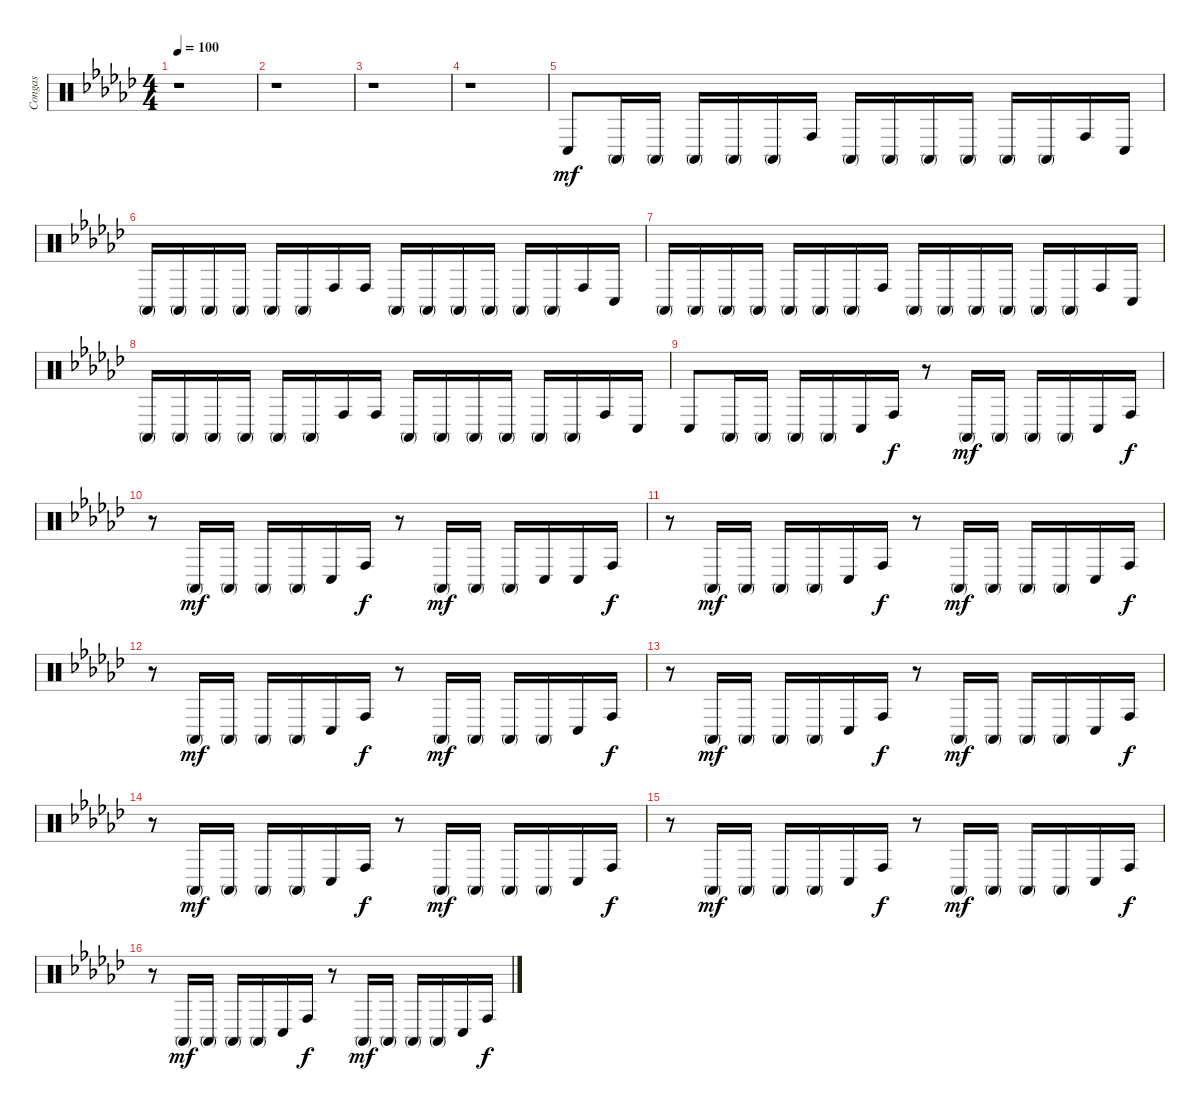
\track ("Congas" "Congas") {instrument percussion}
\staff {score}
\articulation defaults
\ts (4 4)
\tempo 100
\clef neutral
\ks ebminor
r.1{dy mf} |
r.1 |
r.1 |
r.1 |
"Conga low (hit)".8 "Conga high (mute)".16 "Conga high (mute)".16 "Conga high (mute)".16 "Conga high (mute)".16 "Conga high (mute)".16 "Conga high (hit)".16 "Conga high (mute)".16 "Conga high (mute)".16 "Conga high (mute)".16 "Conga high (mute)".16 "Conga high (mute)".16 "Conga high (mute)".16 "Conga high (hit)".16 "Conga low (hit)".16 |
"Conga high (mute)".16 "Conga high (mute)".16 "Conga high (mute)".16 "Conga high (mute)".16 "Conga high (mute)".16 "Conga high (mute)".16 "Conga high (hit)".16 "Conga high (hit)".16 "Conga high (mute)".16 "Conga high (mute)".16 "Conga high (mute)".16 "Conga high (mute)".16 "Conga high (mute)".16 "Conga high (mute)".16 "Conga high (hit)".16 "Conga low (hit)".16 |
"Conga high (mute)".16 "Conga high (mute)".16 "Conga high (mute)".16 "Conga high (mute)".16 "Conga high (mute)".16 "Conga high (mute)".16 "Conga high (mute)".16 "Conga high (hit)".16 "Conga high (mute)".16 "Conga high (mute)".16 "Conga high (mute)".16 "Conga high (mute)".16 "Conga high (mute)".16 "Conga high (mute)".16 "Conga high (hit)".16 "Conga low (hit)".16 |
"Conga high (mute)".16 "Conga high (mute)".16 "Conga high (mute)".16 "Conga high (mute)".16 "Conga high (mute)".16 "Conga high (mute)".16 "Conga high (hit)".16 "Conga high (hit)".16 "Conga high (mute)".16 "Conga high (mute)".16 "Conga high (mute)".16 "Conga high (mute)".16 "Conga high (mute)".16 "Conga high (mute)".16 "Conga high (hit)".16 "Conga low (hit)".16 |
"Conga low (hit)".8 "Conga high (mute)".16 "Conga high (mute)".16 "Conga high (mute)".16 "Conga high (mute)".16 "Conga low (hit)".16 "Conga high (hit)".16{dy f} r.8 "Conga high (mute)".16{dy mf} "Conga high (mute)".16 "Conga high (mute)".16 "Conga high (mute)".16 "Conga low (hit)".16 "Conga high (hit)".16{dy f} |
r.8 "Conga high (mute)".16{dy mf} "Conga high (mute)".16 "Conga high (mute)".16 "Conga high (mute)".16 "Conga low (hit)".16 "Conga high (hit)".16{dy f} r.8 "Conga high (mute)".16{dy mf} "Conga high (mute)".16 "Conga high (mute)".16 "Conga low (hit)".16 "Conga low (hit)".16 "Conga high (hit)".16{dy f} |
r.8 "Conga high (mute)".16{dy mf} "Conga high (mute)".16 "Conga high (mute)".16 "Conga high (mute)".16 "Conga low (hit)".16 "Conga high (hit)".16{dy f} r.8 "Conga high (mute)".16{dy mf} "Conga high (mute)".16 "Conga high (mute)".16 "Conga high (mute)".16 "Conga low (hit)".16 "Conga high (hit)".16{dy f} |
r.8 "Conga high (mute)".16{dy mf} "Conga high (mute)".16 "Conga high (mute)".16 "Conga high (mute)".16 "Conga low (hit)".16 "Conga high (hit)".16{dy f} r.8 "Conga high (mute)".16{dy mf} "Conga high (mute)".16 "Conga high (mute)".16 "Conga high (mute)".16 "Conga low (hit)".16 "Conga high (hit)".16{dy f} |
r.8 "Conga high (mute)".16{dy mf} "Conga high (mute)".16 "Conga high (mute)".16 "Conga high (mute)".16 "Conga low (hit)".16 "Conga high (hit)".16{dy f} r.8 "Conga high (mute)".16{dy mf} "Conga high (mute)".16 "Conga high (mute)".16 "Conga high (mute)".16 "Conga low (hit)".16 "Conga high (hit)".16{dy f} |
r.8 "Conga high (mute)".16{dy mf} "Conga high (mute)".16 "Conga high (mute)".16 "Conga high (mute)".16 "Conga low (hit)".16 "Conga high (hit)".16{dy f} r.8 "Conga high (mute)".16{dy mf} "Conga high (mute)".16 "Conga high (mute)".16 "Conga high (mute)".16 "Conga low (hit)".16 "Conga high (hit)".16{dy f} |
r.8 "Conga high (mute)".16{dy mf} "Conga high (mute)".16 "Conga high (mute)".16 "Conga high (mute)".16 "Conga low (hit)".16 "Conga high (hit)".16{dy f} r.8 "Conga high (mute)".16{dy mf} "Conga high (mute)".16 "Conga high (mute)".16 "Conga high (mute)".16 "Conga low (hit)".16 "Conga high (hit)".16{dy f} |
r.8 "Conga high (mute)".16{dy mf} "Conga high (mute)".16 "Conga high (mute)".16 "Conga high (mute)".16 "Conga low (hit)".16 "Conga high (hit)".16{dy f} r.8 "Conga high (mute)".16{dy mf} "Conga high (mute)".16 "Conga high (mute)".16 "Conga high (mute)".16 "Conga low (hit)".16 "Conga high (hit)".16{dy f}
